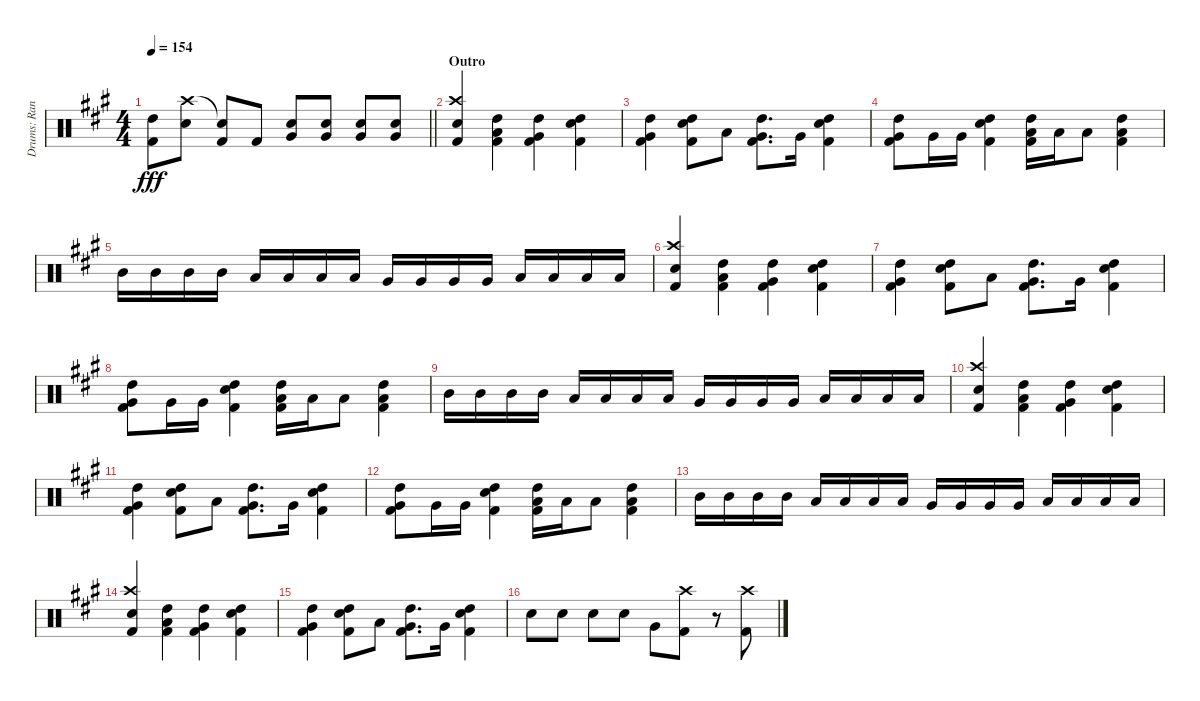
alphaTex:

\track ("Drums: Randy" "Drums: Ran") {instrument percussion}
\staff {score}
\articulation defaults
\ts (4 4)
\tempo 154
\clef neutral
\barLineRight lightlight
\ks a
("High Tom (hit)" "Kick (hit) 2").8{dy fff} ("Crash high (hit)" "Snare (hit) 2").8 ("Snare (hit)"{t} "Kick (hit) 2").8 "Kick (hit) 2".8 ("Snare (hit) 2" "Very Low Tom (hit)").8 ("Snare (hit) 2" "Very Low Tom (hit)").8 ("Snare (hit) 2" "Very Low Tom (hit)").8 ("Snare (hit) 2" "Very Low Tom (hit)").8 |
\section ("" "Outro")
("Crash high (hit)" "Snare (hit) 2" "Kick (hit) 2").4 ("Low Tom (hit)" "High Tom (hit)" "Kick (hit) 2").4 ("Very Low Tom (hit)" "High Tom (hit)" "Kick (hit) 2").4 ("Snare (hit) 2" "High Tom (hit)" "Kick (hit) 2").4 |
("Very Low Tom (hit)" "High Tom (hit)" "Kick (hit) 2").4 ("Snare (hit) 2" "High Tom (hit)" "Kick (hit) 2").8 "Low Tom (hit)".8 ("Very Low Tom (hit)" "High Tom (hit)" "Kick (hit) 2").8{d} "Very Low Tom (hit)".16 ("Snare (hit) 2" "High Tom (hit)" "Kick (hit) 2").4 |
("Very Low Tom (hit)" "High Tom (hit)" "Kick (hit) 2").8 "Very Low Tom (hit)".16 "Very Low Tom (hit)".16 ("Snare (hit) 2" "High Tom (hit)" "Kick (hit) 2").4 ("Low Floor Tom (hit)" "High Tom (hit)" "Kick (hit) 2").16 "Low Floor Tom (hit)".16 "Low Floor Tom (hit)".8 ("Low Tom (hit)" "High Tom (hit)" "Kick (hit) 2").4 |
"Mid Tom (hit)".16 "Mid Tom (hit)".16 "Mid Tom (hit)".16 "Mid Tom (hit)".16 "Low Tom (hit)".16 "Low Tom (hit)".16 "Low Tom (hit)".16 "Low Tom (hit)".16 "Very Low Tom (hit)".16 "Very Low Tom (hit)".16 "Very Low Tom (hit)".16 "Very Low Tom (hit)".16 "Low Floor Tom (hit)".16 "Low Floor Tom (hit)".16 "Low Floor Tom (hit)".16 "Low Floor Tom (hit)".16 |
("Crash high (hit)" "Snare (hit) 2" "Kick (hit) 2").4 ("Low Tom (hit)" "High Tom (hit)" "Kick (hit) 2").4 ("Very Low Tom (hit)" "High Tom (hit)" "Kick (hit) 2").4 ("Snare (hit) 2" "High Tom (hit)" "Kick (hit) 2").4 |
("Very Low Tom (hit)" "High Tom (hit)" "Kick (hit) 2").4 ("Snare (hit) 2" "High Tom (hit)" "Kick (hit) 2").8 "Low Tom (hit)".8 ("Very Low Tom (hit)" "High Tom (hit)" "Kick (hit) 2").8{d} "Very Low Tom (hit)".16 ("Snare (hit) 2" "High Tom (hit)" "Kick (hit) 2").4 |
("Very Low Tom (hit)" "High Tom (hit)" "Kick (hit) 2").8 "Very Low Tom (hit)".16 "Very Low Tom (hit)".16 ("Snare (hit) 2" "High Tom (hit)" "Kick (hit) 2").4 ("Low Floor Tom (hit)" "High Tom (hit)" "Kick (hit) 2").16 "Low Floor Tom (hit)".16 "Low Floor Tom (hit)".8 ("Low Tom (hit)" "High Tom (hit)" "Kick (hit) 2").4 |
"Mid Tom (hit)".16 "Mid Tom (hit)".16 "Mid Tom (hit)".16 "Mid Tom (hit)".16 "Low Tom (hit)".16 "Low Tom (hit)".16 "Low Tom (hit)".16 "Low Tom (hit)".16 "Very Low Tom (hit)".16 "Very Low Tom (hit)".16 "Very Low Tom (hit)".16 "Very Low Tom (hit)".16 "Low Floor Tom (hit)".16 "Low Floor Tom (hit)".16 "Low Floor Tom (hit)".16 "Low Floor Tom (hit)".16 |
("Crash high (hit)" "Snare (hit) 2" "Kick (hit) 2").4 ("Low Tom (hit)" "High Tom (hit)" "Kick (hit) 2").4 ("Very Low Tom (hit)" "High Tom (hit)" "Kick (hit) 2").4 ("Snare (hit) 2" "High Tom (hit)" "Kick (hit) 2").4 |
("Very Low Tom (hit)" "High Tom (hit)" "Kick (hit) 2").4 ("Snare (hit) 2" "High Tom (hit)" "Kick (hit) 2").8 "Low Tom (hit)".8 ("Very Low Tom (hit)" "High Tom (hit)" "Kick (hit) 2").8{d} "Very Low Tom (hit)".16 ("Snare (hit) 2" "High Tom (hit)" "Kick (hit) 2").4 |
("Very Low Tom (hit)" "High Tom (hit)" "Kick (hit) 2").8 "Very Low Tom (hit)".16 "Very Low Tom (hit)".16 ("Snare (hit) 2" "High Tom (hit)" "Kick (hit) 2").4 ("Low Floor Tom (hit)" "High Tom (hit)" "Kick (hit) 2").16 "Low Floor Tom (hit)".16 "Low Floor Tom (hit)".8 ("Low Tom (hit)" "High Tom (hit)" "Kick (hit) 2").4 |
"Mid Tom (hit)".16 "Mid Tom (hit)".16 "Mid Tom (hit)".16 "Mid Tom (hit)".16 "Low Tom (hit)".16 "Low Tom (hit)".16 "Low Tom (hit)".16 "Low Tom (hit)".16 "Very Low Tom (hit)".16 "Very Low Tom (hit)".16 "Very Low Tom (hit)".16 "Very Low Tom (hit)".16 "Low Floor Tom (hit)".16 "Low Floor Tom (hit)".16 "Low Floor Tom (hit)".16 "Low Floor Tom (hit)".16 |
("Crash high (hit)" "Snare (hit) 2" "Kick (hit) 2").4 ("Low Tom (hit)" "High Tom (hit)" "Kick (hit) 2").4 ("Very Low Tom (hit)" "High Tom (hit)" "Kick (hit) 2").4 ("Snare (hit) 2" "High Tom (hit)" "Kick (hit) 2").4 |
("Very Low Tom (hit)" "High Tom (hit)" "Kick (hit) 2").4 ("Snare (hit) 2" "High Tom (hit)" "Kick (hit) 2").8 "Low Tom (hit)".8 ("Very Low Tom (hit)" "High Tom (hit)" "Kick (hit) 2").8{d} "Very Low Tom (hit)".16 ("Snare (hit) 2" "High Tom (hit)" "Kick (hit) 2").4 |
"Snare (hit) 2".8 "Snare (hit) 2".8 "Snare (hit) 2".8 "Snare (hit) 2".8 "Very Low Tom (hit)".8 ("Crash high (hit)" "Kick (hit) 2").8 r.8 ("Crash high (hit)" "Kick (hit) 2").8
